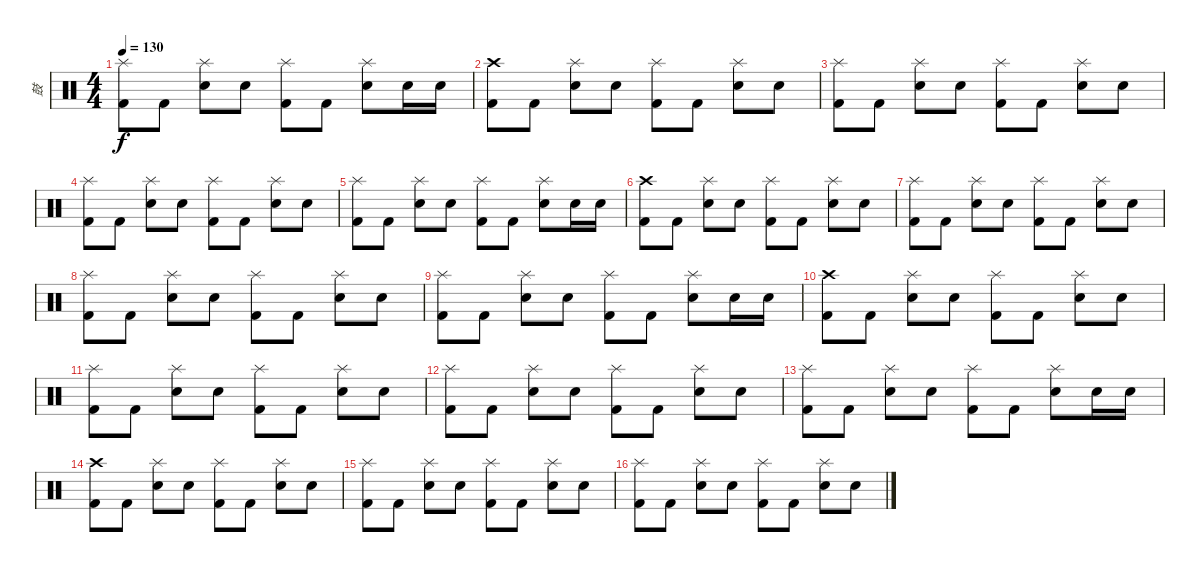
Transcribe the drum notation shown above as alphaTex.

\track ("鼓" "鼓") {instrument percussion}
\staff {score}
\articulation defaults
\ts (4 4)
\tempo 130
\clef neutral
\ks c
("Splash (hit)" "Kick (hit) 2").8{dy f} "Kick (hit) 2".8 ("Splash (hit)" "Electric Snare (hit)").8 "Electric Snare (hit)".8 ("Splash (hit)" "Kick (hit) 2").8 "Kick (hit) 2".8 ("Splash (hit)" "Electric Snare (hit)").8 "Electric Snare (hit)".16 "Electric Snare (hit)".16 |
("Crash high (hit)" "Kick (hit) 2").8{volume 10} "Kick (hit) 2".8 ("Splash (hit)" "Electric Snare (hit)").8 "Electric Snare (hit)".8 ("Splash (hit)" "Kick (hit) 2").8 "Kick (hit) 2".8 ("Splash (hit)" "Electric Snare (hit)").8 "Electric Snare (hit)".8 |
("Splash (hit)" "Kick (hit) 2").8 "Kick (hit) 2".8 ("Splash (hit)" "Electric Snare (hit)").8 "Electric Snare (hit)".8 ("Splash (hit)" "Kick (hit) 2").8 "Kick (hit) 2".8 ("Splash (hit)" "Electric Snare (hit)").8 "Electric Snare (hit)".8 |
("Splash (hit)" "Kick (hit) 2").8 "Kick (hit) 2".8 ("Splash (hit)" "Electric Snare (hit)").8 "Electric Snare (hit)".8 ("Splash (hit)" "Kick (hit) 2").8 "Kick (hit) 2".8 ("Splash (hit)" "Electric Snare (hit)").8 "Electric Snare (hit)".8 |
("Splash (hit)" "Kick (hit) 2").8 "Kick (hit) 2".8 ("Splash (hit)" "Electric Snare (hit)").8 "Electric Snare (hit)".8 ("Splash (hit)" "Kick (hit) 2").8 "Kick (hit) 2".8 ("Splash (hit)" "Electric Snare (hit)").8 "Electric Snare (hit)".16 "Electric Snare (hit)".16 |
("Crash high (hit)" "Kick (hit) 2").8{volume 8} "Kick (hit) 2".8 ("Splash (hit)" "Electric Snare (hit)").8 "Electric Snare (hit)".8 ("Splash (hit)" "Kick (hit) 2").8 "Kick (hit) 2".8 ("Splash (hit)" "Electric Snare (hit)").8 "Electric Snare (hit)".8 |
("Splash (hit)" "Kick (hit) 2").8 "Kick (hit) 2".8 ("Splash (hit)" "Electric Snare (hit)").8 "Electric Snare (hit)".8 ("Splash (hit)" "Kick (hit) 2").8 "Kick (hit) 2".8 ("Splash (hit)" "Electric Snare (hit)").8 "Electric Snare (hit)".8 |
("Splash (hit)" "Kick (hit) 2").8 "Kick (hit) 2".8 ("Splash (hit)" "Electric Snare (hit)").8 "Electric Snare (hit)".8 ("Splash (hit)" "Kick (hit) 2").8 "Kick (hit) 2".8 ("Splash (hit)" "Electric Snare (hit)").8 "Electric Snare (hit)".8 |
("Splash (hit)" "Kick (hit) 2").8 "Kick (hit) 2".8 ("Splash (hit)" "Electric Snare (hit)").8 "Electric Snare (hit)".8 ("Splash (hit)" "Kick (hit) 2").8 "Kick (hit) 2".8 ("Splash (hit)" "Electric Snare (hit)").8 "Electric Snare (hit)".16 "Electric Snare (hit)".16 |
("Crash high (hit)" "Kick (hit) 2").8{volume 7} "Kick (hit) 2".8 ("Splash (hit)" "Electric Snare (hit)").8 "Electric Snare (hit)".8 ("Splash (hit)" "Kick (hit) 2").8 "Kick (hit) 2".8 ("Splash (hit)" "Electric Snare (hit)").8 "Electric Snare (hit)".8 |
("Splash (hit)" "Kick (hit) 2").8 "Kick (hit) 2".8 ("Splash (hit)" "Electric Snare (hit)").8 "Electric Snare (hit)".8 ("Splash (hit)" "Kick (hit) 2").8 "Kick (hit) 2".8 ("Splash (hit)" "Electric Snare (hit)").8 "Electric Snare (hit)".8 |
("Splash (hit)" "Kick (hit) 2").8 "Kick (hit) 2".8 ("Splash (hit)" "Electric Snare (hit)").8 "Electric Snare (hit)".8 ("Splash (hit)" "Kick (hit) 2").8 "Kick (hit) 2".8 ("Splash (hit)" "Electric Snare (hit)").8 "Electric Snare (hit)".8 |
("Splash (hit)" "Kick (hit) 2").8 "Kick (hit) 2".8 ("Splash (hit)" "Electric Snare (hit)").8 "Electric Snare (hit)".8 ("Splash (hit)" "Kick (hit) 2").8 "Kick (hit) 2".8 ("Splash (hit)" "Electric Snare (hit)").8 "Electric Snare (hit)".16 "Electric Snare (hit)".16 |
("Crash high (hit)" "Kick (hit) 2").8{volume 6} "Kick (hit) 2".8 ("Splash (hit)" "Electric Snare (hit)").8 "Electric Snare (hit)".8 ("Splash (hit)" "Kick (hit) 2").8 "Kick (hit) 2".8 ("Splash (hit)" "Electric Snare (hit)").8 "Electric Snare (hit)".8 |
("Splash (hit)" "Kick (hit) 2").8 "Kick (hit) 2".8 ("Splash (hit)" "Electric Snare (hit)").8 "Electric Snare (hit)".8 ("Splash (hit)" "Kick (hit) 2").8 "Kick (hit) 2".8 ("Splash (hit)" "Electric Snare (hit)").8 "Electric Snare (hit)".8 |
("Splash (hit)" "Kick (hit) 2").8 "Kick (hit) 2".8 ("Splash (hit)" "Electric Snare (hit)").8 "Electric Snare (hit)".8 ("Splash (hit)" "Kick (hit) 2").8 "Kick (hit) 2".8 ("Splash (hit)" "Electric Snare (hit)").8 "Electric Snare (hit)".8
